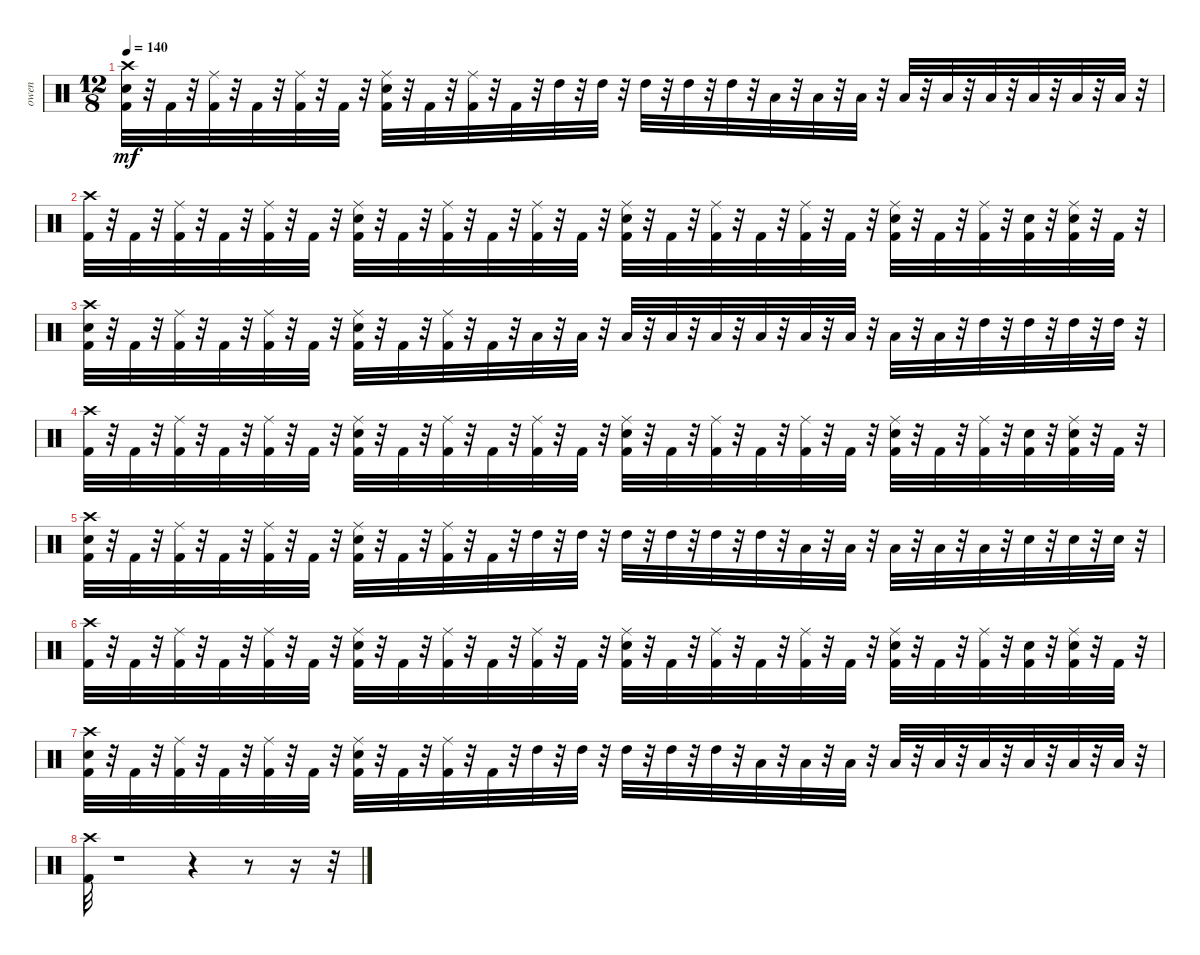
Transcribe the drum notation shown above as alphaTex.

\track ("owen" "owen") {instrument percussion}
\staff {score}
\articulation defaults
\ts (12 8)
\tempo 140
\clef neutral
\ks c
("Kick (hit) 2" "Snare (hit) 2" "Crash high (hit)").32{dy mf} r.32 "Kick (hit) 2".32 r.32 ("Kick (hit) 2" "Ride (middle)").32 r.32 "Kick (hit) 2".32 r.32 ("Kick (hit) 2" "Ride (middle)").32 r.32 "Kick (hit) 2".32 r.32 ("Kick (hit) 2" "Ride (middle)" "Snare (hit) 2").32 r.32 "Kick (hit) 2".32 r.32 ("Kick (hit) 2" "Ride (middle)").32 r.32 "Kick (hit) 2".32 r.32 "High Tom (hit)".32 r.32 "High Tom (hit)".32 r.32 "High Tom (hit)".32 r.32 "High Tom (hit)".32 r.32 "High Tom (hit)".32 r.32 "Low Tom (hit)".32 r.32 "Low Tom (hit)".32 r.32 "Low Tom (hit)".32 r.32 "Low Tom (hit)".32 r.32 "Low Tom (hit)".32 r.32 "Low Tom (hit)".32 r.32 "Low Floor Tom (hit)".32 r.32 "Low Floor Tom (hit)".32 r.32 "Low Floor Tom (hit)".32 r.32 |
("Kick (hit) 2" "Crash high (hit)").32 r.32 "Kick (hit) 2".32 r.32 ("Kick (hit) 2" "Ride (middle)").32 r.32 "Kick (hit) 2".32 r.32 ("Kick (hit) 2" "Ride (middle)").32 r.32 "Kick (hit) 2".32 r.32 ("Kick (hit) 2" "Ride (middle)" "Snare (hit) 2").32 r.32 "Kick (hit) 2".32 r.32 ("Kick (hit) 2" "Ride (middle)").32 r.32 "Kick (hit) 2".32 r.32 ("Kick (hit) 2" "Ride (middle)").32 r.32 "Kick (hit) 2".32 r.32 ("Kick (hit) 2" "Ride (middle)" "Snare (hit) 2").32 r.32 "Kick (hit) 2".32 r.32 ("Kick (hit) 2" "Ride (middle)").32 r.32 "Kick (hit) 2".32 r.32 ("Kick (hit) 2" "Ride (middle)").32 r.32 "Kick (hit) 2".32 r.32 ("Kick (hit) 2" "Ride (middle)" "Snare (hit) 2").32 r.32 "Kick (hit) 2".32 r.32 ("Kick (hit) 2" "Ride (middle)").32 r.32 ("Kick (hit) 2" "Snare (hit) 2").32 r.32 ("Kick (hit) 2" "Ride (middle)" "Snare (hit) 2").32 r.32 "Kick (hit) 2".32 r.32 |
("Kick (hit) 2" "Snare (hit) 2" "Crash high (hit)").32 r.32 "Kick (hit) 2".32 r.32 ("Kick (hit) 2" "Ride (middle)").32 r.32 "Kick (hit) 2".32 r.32 ("Kick (hit) 2" "Ride (middle)").32 r.32 "Kick (hit) 2".32 r.32 ("Kick (hit) 2" "Ride (middle)" "Snare (hit) 2").32 r.32 "Kick (hit) 2".32 r.32 ("Kick (hit) 2" "Ride (middle)").32 r.32 "Kick (hit) 2".32 r.32 "Low Floor Tom (hit)".32 r.32 "Low Floor Tom (hit)".32 r.32 "Low Floor Tom (hit)".32 r.32 "Low Floor Tom (hit)".32 r.32 "Low Floor Tom (hit)".32 r.32 "Low Tom (hit)".32 r.32 "Low Tom (hit)".32 r.32 "Low Tom (hit)".32 r.32 "Low Tom (hit)".32 r.32 "Low Tom (hit)".32 r.32 "High Tom (hit)".32 r.32 "High Tom (hit)".32 r.32 "High Tom (hit)".32 r.32 "High Tom (hit)".32 r.32 |
("Kick (hit) 2" "Crash high (hit)").32 r.32 "Kick (hit) 2".32 r.32 ("Kick (hit) 2" "Ride (middle)").32 r.32 "Kick (hit) 2".32 r.32 ("Kick (hit) 2" "Ride (middle)").32 r.32 "Kick (hit) 2".32 r.32 ("Kick (hit) 2" "Ride (middle)" "Snare (hit) 2").32 r.32 "Kick (hit) 2".32 r.32 ("Kick (hit) 2" "Ride (middle)").32 r.32 "Kick (hit) 2".32 r.32 ("Kick (hit) 2" "Ride (middle)").32 r.32 "Kick (hit) 2".32 r.32 ("Kick (hit) 2" "Ride (middle)" "Snare (hit) 2").32 r.32 "Kick (hit) 2".32 r.32 ("Kick (hit) 2" "Ride (middle)").32 r.32 "Kick (hit) 2".32 r.32 ("Kick (hit) 2" "Ride (middle)").32 r.32 "Kick (hit) 2".32 r.32 ("Kick (hit) 2" "Ride (middle)" "Snare (hit) 2").32 r.32 "Kick (hit) 2".32 r.32 ("Kick (hit) 2" "Ride (middle)").32 r.32 ("Kick (hit) 2" "Snare (hit) 2").32 r.32 ("Kick (hit) 2" "Ride (middle)" "Snare (hit) 2").32 r.32 "Kick (hit) 2".32 r.32 |
("Kick (hit) 2" "Snare (hit) 2" "Crash high (hit)").32 r.32 "Kick (hit) 2".32 r.32 ("Kick (hit) 2" "Ride (middle)").32 r.32 "Kick (hit) 2".32 r.32 ("Kick (hit) 2" "Ride (middle)").32 r.32 "Kick (hit) 2".32 r.32 ("Kick (hit) 2" "Ride (middle)" "Snare (hit) 2").32 r.32 "Kick (hit) 2".32 r.32 ("Kick (hit) 2" "Ride (middle)").32 r.32 "Kick (hit) 2".32 r.32 "High Tom (hit)".32 r.32 "High Tom (hit)".32 r.32 "High Tom (hit)".32 r.32 "High Tom (hit)".32 r.32 "High Tom (hit)".32 r.32 "High Tom (hit)".32 r.32 "Low Floor Tom (hit)".32 r.32 "Low Floor Tom (hit)".32 r.32 "Low Floor Tom (hit)".32 r.32 "Low Floor Tom (hit)".32 r.32 "Low Floor Tom (hit)".32 r.32 "Snare (hit) 2".32 r.32 "Snare (hit) 2".32 r.32 "Snare (hit) 2".32 r.32 |
("Kick (hit) 2" "Crash high (hit)").32 r.32 "Kick (hit) 2".32 r.32 ("Kick (hit) 2" "Ride (middle)").32 r.32 "Kick (hit) 2".32 r.32 ("Kick (hit) 2" "Ride (middle)").32 r.32 "Kick (hit) 2".32 r.32 ("Kick (hit) 2" "Ride (middle)" "Snare (hit) 2").32 r.32 "Kick (hit) 2".32 r.32 ("Kick (hit) 2" "Ride (middle)").32 r.32 "Kick (hit) 2".32 r.32 ("Kick (hit) 2" "Ride (middle)").32 r.32 "Kick (hit) 2".32 r.32 ("Kick (hit) 2" "Ride (middle)" "Snare (hit) 2").32 r.32 "Kick (hit) 2".32 r.32 ("Kick (hit) 2" "Ride (middle)").32 r.32 "Kick (hit) 2".32 r.32 ("Kick (hit) 2" "Ride (middle)").32 r.32 "Kick (hit) 2".32 r.32 ("Kick (hit) 2" "Ride (middle)" "Snare (hit) 2").32 r.32 "Kick (hit) 2".32 r.32 ("Kick (hit) 2" "Ride (middle)").32 r.32 ("Kick (hit) 2" "Snare (hit) 2").32 r.32 ("Kick (hit) 2" "Ride (middle)" "Snare (hit) 2").32 r.32 "Kick (hit) 2".32 r.32 |
("Kick (hit) 2" "Snare (hit) 2" "Crash high (hit)").32 r.32 "Kick (hit) 2".32 r.32 ("Kick (hit) 2" "Ride (middle)").32 r.32 "Kick (hit) 2".32 r.32 ("Kick (hit) 2" "Ride (middle)").32 r.32 "Kick (hit) 2".32 r.32 ("Kick (hit) 2" "Ride (middle)" "Snare (hit) 2").32 r.32 "Kick (hit) 2".32 r.32 ("Kick (hit) 2" "Ride (middle)").32 r.32 "Kick (hit) 2".32 r.32 "High Tom (hit)".32 r.32 "High Tom (hit)".32 r.32 "High Tom (hit)".32 r.32 "High Tom (hit)".32 r.32 "High Tom (hit)".32 r.32 "Low Tom (hit)".32 r.32 "Low Tom (hit)".32 r.32 "Low Tom (hit)".32 r.32 "Low Tom (hit)".32 r.32 "Low Tom (hit)".32 r.32 "Low Tom (hit)".32 r.32 "Low Floor Tom (hit)".32 r.32 "Low Floor Tom (hit)".32 r.32 "Low Floor Tom (hit)".32 r.32 |
("Crash high (hit)" "Kick (hit) 2").32 r.1 r.4 r.8 r.16 r.32
